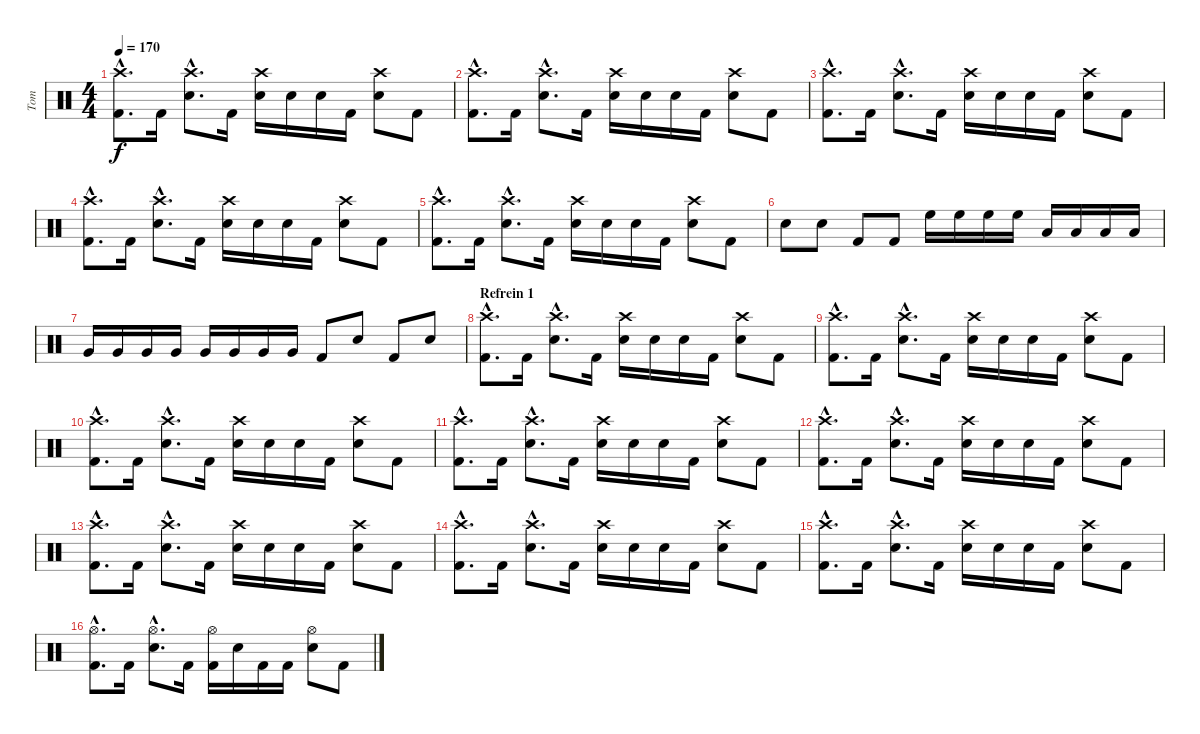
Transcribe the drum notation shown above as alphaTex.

\track ("Tom" "Tom") {instrument percussion}
\staff {score}
\articulation defaults
\ts (4 4)
\tempo 170
\clef neutral
\ks c
("Crash high (hit)"{hac} "Kick (hit) 2"{hac}).8{d dy f} "Kick (hit) 2".16 ("Crash high (hit)"{hac} "Electric Snare (hit)"{hac}).8{d} "Kick (hit) 2".16 ("Crash high (hit)" "Electric Snare (hit)").16 "Electric Snare (hit)".16 "Electric Snare (hit)".16 "Kick (hit) 2".16 ("Crash high (hit)" "Electric Snare (hit)").8 "Kick (hit) 2".8 |
("Crash high (hit)"{hac} "Kick (hit) 2"{hac}).8{d} "Kick (hit) 2".16 ("Crash high (hit)"{hac} "Electric Snare (hit)"{hac}).8{d} "Kick (hit) 2".16 ("Crash high (hit)" "Electric Snare (hit)").16 "Electric Snare (hit)".16 "Electric Snare (hit)".16 "Kick (hit) 2".16 ("Crash high (hit)" "Electric Snare (hit)").8 "Kick (hit) 2".8 |
("Crash high (hit)"{hac} "Kick (hit) 2"{hac}).8{d} "Kick (hit) 2".16 ("Crash high (hit)"{hac} "Electric Snare (hit)"{hac}).8{d} "Kick (hit) 2".16 ("Crash high (hit)" "Electric Snare (hit)").16 "Electric Snare (hit)".16 "Electric Snare (hit)".16 "Kick (hit) 2".16 ("Crash high (hit)" "Electric Snare (hit)").8 "Kick (hit) 2".8 |
("Crash high (hit)"{hac} "Kick (hit) 2"{hac}).8{d} "Kick (hit) 2".16 ("Crash high (hit)"{hac} "Electric Snare (hit)"{hac}).8{d} "Kick (hit) 2".16 ("Crash high (hit)" "Electric Snare (hit)").16 "Electric Snare (hit)".16 "Electric Snare (hit)".16 "Kick (hit) 2".16 ("Crash high (hit)" "Electric Snare (hit)").8 "Kick (hit) 2".8 |
("Crash high (hit)"{hac} "Kick (hit) 2"{hac}).8{d} "Kick (hit) 2".16 ("Crash high (hit)"{hac} "Electric Snare (hit)"{hac}).8{d} "Kick (hit) 2".16 ("Crash high (hit)" "Electric Snare (hit)").16 "Electric Snare (hit)".16 "Electric Snare (hit)".16 "Kick (hit) 2".16 ("Crash high (hit)" "Electric Snare (hit)").8 "Kick (hit) 2".8 |
"Snare (hit) 2".8 "Snare (hit) 2".8 "Kick (hit) 2".8 "Kick (hit) 2".8 "High Floor Tom (hit)".16 "High Floor Tom (hit)".16 "High Floor Tom (hit)".16 "High Floor Tom (hit)".16 "Low Tom (hit)".16 "Low Tom (hit)".16 "Low Tom (hit)".16 "Low Tom (hit)".16 |
"Very Low Tom (hit)".16 "Very Low Tom (hit)".16 "Very Low Tom (hit)".16 "Very Low Tom (hit)".16 "Very Low Tom (hit)".16 "Very Low Tom (hit)".16 "Very Low Tom (hit)".16 "Very Low Tom (hit)".16 "Kick (hit) 2".8 "Snare (hit) 2".8 "Kick (hit) 2".8 "Snare (hit) 2".8 |
\section ("" "Refrein 1")
("Crash high (hit)"{hac} "Kick (hit) 2"{hac}).8{d} "Kick (hit) 2".16 ("Crash high (hit)"{hac} "Electric Snare (hit)"{hac}).8{d} "Kick (hit) 2".16 ("Crash high (hit)" "Electric Snare (hit)").16 "Electric Snare (hit)".16 "Electric Snare (hit)".16 "Kick (hit) 2".16 ("Crash high (hit)" "Electric Snare (hit)").8 "Kick (hit) 2".8 |
("Crash high (hit)"{hac} "Kick (hit) 2"{hac}).8{d} "Kick (hit) 2".16 ("Crash high (hit)"{hac} "Electric Snare (hit)"{hac}).8{d} "Kick (hit) 2".16 ("Crash high (hit)" "Electric Snare (hit)").16 "Electric Snare (hit)".16 "Electric Snare (hit)".16 "Kick (hit) 2".16 ("Crash high (hit)" "Electric Snare (hit)").8 "Kick (hit) 2".8 |
("Crash high (hit)"{hac} "Kick (hit) 2"{hac}).8{d} "Kick (hit) 2".16 ("Crash high (hit)"{hac} "Electric Snare (hit)"{hac}).8{d} "Kick (hit) 2".16 ("Crash high (hit)" "Electric Snare (hit)").16 "Electric Snare (hit)".16 "Electric Snare (hit)".16 "Kick (hit) 2".16 ("Crash high (hit)" "Electric Snare (hit)").8 "Kick (hit) 2".8 |
("Crash high (hit)"{hac} "Kick (hit) 2"{hac}).8{d} "Kick (hit) 2".16 ("Crash high (hit)"{hac} "Electric Snare (hit)"{hac}).8{d} "Kick (hit) 2".16 ("Crash high (hit)" "Electric Snare (hit)").16 "Electric Snare (hit)".16 "Electric Snare (hit)".16 "Kick (hit) 2".16 ("Crash high (hit)" "Electric Snare (hit)").8 "Kick (hit) 2".8 |
("Crash high (hit)"{hac} "Kick (hit) 2"{hac}).8{d} "Kick (hit) 2".16 ("Crash high (hit)"{hac} "Electric Snare (hit)"{hac}).8{d} "Kick (hit) 2".16 ("Crash high (hit)" "Electric Snare (hit)").16 "Electric Snare (hit)".16 "Electric Snare (hit)".16 "Kick (hit) 2".16 ("Crash high (hit)" "Electric Snare (hit)").8 "Kick (hit) 2".8 |
("Crash high (hit)"{hac} "Kick (hit) 2"{hac}).8{d} "Kick (hit) 2".16 ("Crash high (hit)"{hac} "Electric Snare (hit)"{hac}).8{d} "Kick (hit) 2".16 ("Crash high (hit)" "Electric Snare (hit)").16 "Electric Snare (hit)".16 "Electric Snare (hit)".16 "Kick (hit) 2".16 ("Crash high (hit)" "Electric Snare (hit)").8 "Kick (hit) 2".8 |
("Crash high (hit)"{hac} "Kick (hit) 2"{hac}).8{d} "Kick (hit) 2".16 ("Crash high (hit)"{hac} "Electric Snare (hit)"{hac}).8{d} "Kick (hit) 2".16 ("Crash high (hit)" "Electric Snare (hit)").16 "Electric Snare (hit)".16 "Electric Snare (hit)".16 "Kick (hit) 2".16 ("Crash high (hit)" "Electric Snare (hit)").8 "Kick (hit) 2".8 |
("Crash high (hit)"{hac} "Kick (hit) 2"{hac}).8{d} "Kick (hit) 2".16 ("Crash high (hit)"{hac} "Electric Snare (hit)"{hac}).8{d} "Kick (hit) 2".16 ("Crash high (hit)" "Electric Snare (hit)").16 "Electric Snare (hit)".16 "Electric Snare (hit)".16 "Kick (hit) 2".16 ("Crash high (hit)" "Electric Snare (hit)").8 "Kick (hit) 2".8 |
("Hi-Hat (open)"{hac} "Kick (hit) 2"{hac}).8{d} "Kick (hit) 2".16 ("Hi-Hat (open)"{hac} "Electric Snare (hit)"{hac}).8{d} "Kick (hit) 2".16 ("Hi-Hat (open)" "Kick (hit) 2").16 "Electric Snare (hit)".16 "Kick (hit) 2".16 "Kick (hit) 2".16 ("Hi-Hat (open)" "Electric Snare (hit)").8 "Kick (hit) 2".8
